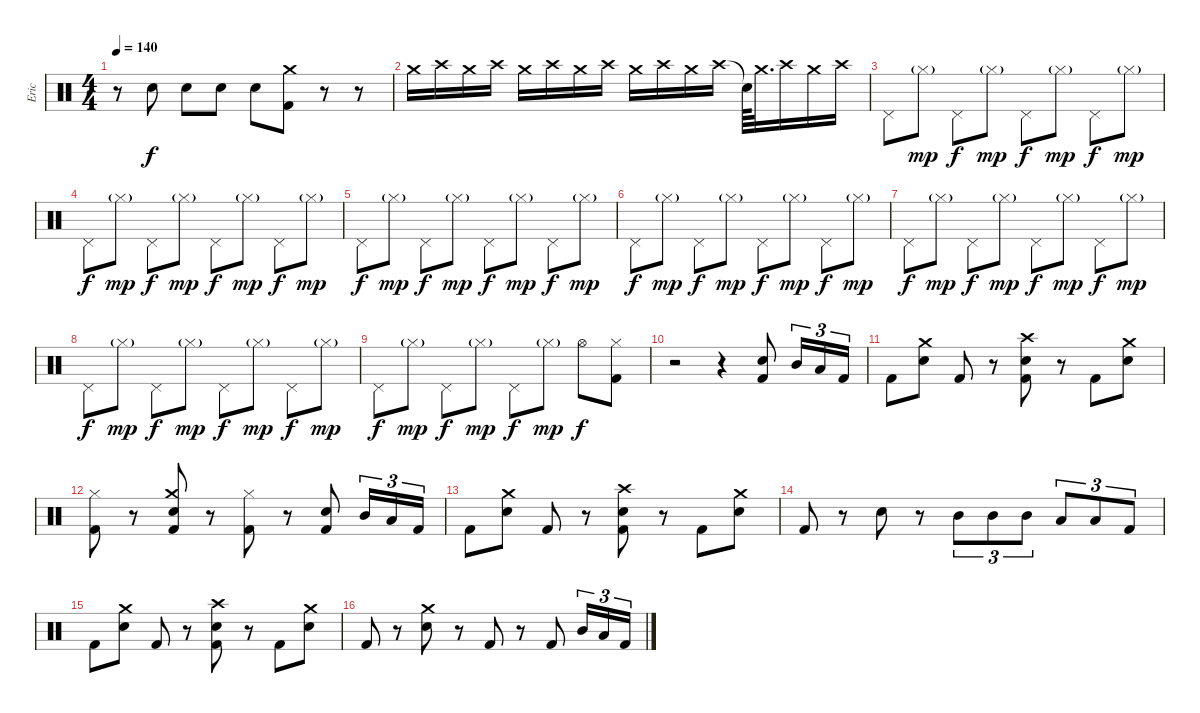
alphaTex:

\track ("Eric" "Eric") {instrument percussion}
\staff {score}
\articulation defaults
\ts (4 4)
\tempo 140
\clef neutral
\ks c
r.8{dy f} "Electric Snare (hit)".8 "Electric Snare (hit)".8 "Electric Snare (hit)".8 "Electric Snare (hit)".8 ("Crash medium (hit)" "Kick (hit) 2").8 r.8 r.8 |
"Crash medium (hit)".16 "Crash high (hit)".16 "Crash medium (hit)".16 "Crash high (hit)".16 "Crash medium (hit)".16 "Crash high (hit)".16 "Crash medium (hit)".16 "Crash high (hit)".16 "Crash medium (hit)".16 "Crash high (hit)".16 "Crash medium (hit)".16 "Crash high (hit)".16 "Snare (hit)"{t}.64 "Crash medium (hit)".32{d} "Crash high (hit)".16 "Crash medium (hit)".16 "Crash high (hit)".16 |
"Pedal Hi-Hat (hit)".8 "Hi-Hat (closed)"{g}.8{dy mp} "Pedal Hi-Hat (hit)".8{dy f} "Hi-Hat (closed)"{g}.8{dy mp} "Pedal Hi-Hat (hit)".8{dy f} "Hi-Hat (closed)"{g}.8{dy mp} "Pedal Hi-Hat (hit)".8{dy f} "Hi-Hat (closed)"{g}.8{dy mp} |
"Pedal Hi-Hat (hit)".8{dy f} "Hi-Hat (closed)"{g}.8{dy mp} "Pedal Hi-Hat (hit)".8{dy f} "Hi-Hat (closed)"{g}.8{dy mp} "Pedal Hi-Hat (hit)".8{dy f} "Hi-Hat (closed)"{g}.8{dy mp} "Pedal Hi-Hat (hit)".8{dy f} "Hi-Hat (closed)"{g}.8{dy mp} |
"Pedal Hi-Hat (hit)".8{dy f} "Hi-Hat (closed)"{g}.8{dy mp} "Pedal Hi-Hat (hit)".8{dy f} "Hi-Hat (closed)"{g}.8{dy mp} "Pedal Hi-Hat (hit)".8{dy f} "Hi-Hat (closed)"{g}.8{dy mp} "Pedal Hi-Hat (hit)".8{dy f} "Hi-Hat (closed)"{g}.8{dy mp} |
"Pedal Hi-Hat (hit)".8{dy f} "Hi-Hat (closed)"{g}.8{dy mp} "Pedal Hi-Hat (hit)".8{dy f} "Hi-Hat (closed)"{g}.8{dy mp} "Pedal Hi-Hat (hit)".8{dy f} "Hi-Hat (closed)"{g}.8{dy mp} "Pedal Hi-Hat (hit)".8{dy f} "Hi-Hat (closed)"{g}.8{dy mp} |
"Pedal Hi-Hat (hit)".8{dy f} "Hi-Hat (closed)"{g}.8{dy mp} "Pedal Hi-Hat (hit)".8{dy f} "Hi-Hat (closed)"{g}.8{dy mp} "Pedal Hi-Hat (hit)".8{dy f} "Hi-Hat (closed)"{g}.8{dy mp} "Pedal Hi-Hat (hit)".8{dy f} "Hi-Hat (closed)"{g}.8{dy mp} |
"Pedal Hi-Hat (hit)".8{dy f} "Hi-Hat (closed)"{g}.8{dy mp} "Pedal Hi-Hat (hit)".8{dy f} "Hi-Hat (closed)"{g}.8{dy mp} "Pedal Hi-Hat (hit)".8{dy f} "Hi-Hat (closed)"{g}.8{dy mp} "Pedal Hi-Hat (hit)".8{dy f} "Hi-Hat (closed)"{g}.8{dy mp} |
"Pedal Hi-Hat (hit)".8{dy f} "Hi-Hat (closed)"{g}.8{dy mp} "Pedal Hi-Hat (hit)".8{dy f} "Hi-Hat (closed)"{g}.8{dy mp} "Pedal Hi-Hat (hit)".8{dy f} "Hi-Hat (closed)"{g}.8{dy mp} "Hi-Hat (open)".8{dy f} ("Hi-Hat (closed)" "Kick (hit) 2").8 |
r.2 r.4 ("Electric Snare (hit)" "Kick (hit) 2").8 "Mid Tom (hit)".16{tu (3 2)} "Low Tom (hit)".16{tu (3 2)} "Kick (hit) 2".16{tu (3 2)} |
"Kick (hit) 2".8 ("Crash medium (hit)" "Electric Snare (hit)").8 "Kick (hit) 2".8 r.8 ("Crash high (hit)" "Electric Snare (hit)" "Kick (hit) 2").8 r.8 "Kick (hit) 2".8 ("Crash medium (hit)" "Electric Snare (hit)").8 |
("Hi-Hat (closed)" "Kick (hit) 2").8 r.8 ("Crash medium (hit)" "Electric Snare (hit)" "Kick (hit) 2").8 r.8 ("Hi-Hat (closed)" "Kick (hit) 2").8 r.8 ("Electric Snare (hit)" "Kick (hit) 2").8 "Mid Tom (hit)".16{tu (3 2)} "Low Tom (hit)".16{tu (3 2)} "Kick (hit) 2".16{tu (3 2)} |
"Kick (hit) 2".8 ("Crash medium (hit)" "Electric Snare (hit)").8 "Kick (hit) 2".8 r.8 ("Crash high (hit)" "Electric Snare (hit)" "Kick (hit) 2").8 r.8 "Kick (hit) 2".8 ("Crash medium (hit)" "Electric Snare (hit)").8 |
"Kick (hit) 2".8 r.8 "Electric Snare (hit)".8 r.8 "Mid Tom (hit)".8{tu (3 2)} "Mid Tom (hit)".8{tu (3 2)} "Mid Tom (hit)".8{tu (3 2)} "Low Tom (hit)".8{tu (3 2)} "Low Tom (hit)".8{tu (3 2)} "Kick (hit) 2".8{tu (3 2)} |
"Kick (hit) 2".8 ("Crash medium (hit)" "Electric Snare (hit)").8 "Kick (hit) 2".8 r.8 ("Crash high (hit)" "Electric Snare (hit)" "Kick (hit) 2").8 r.8 "Kick (hit) 2".8 ("Crash medium (hit)" "Electric Snare (hit)").8 |
"Kick (hit) 2".8 r.8 ("Crash medium (hit)" "Electric Snare (hit)").8 r.8 "Kick (hit) 2".8 r.8 "Kick (hit) 2".8 "Mid Tom (hit)".16{tu (3 2)} "Low Tom (hit)".16{tu (3 2)} "Kick (hit) 2".16{tu (3 2)}
